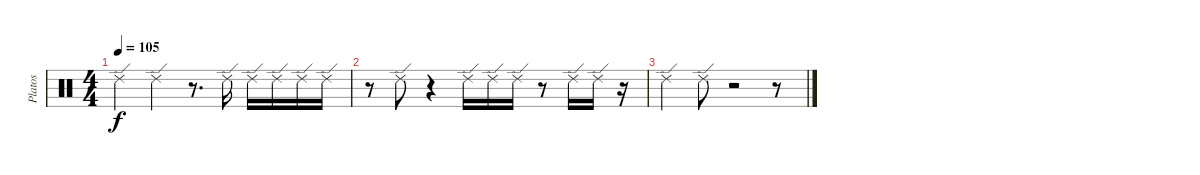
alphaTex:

\track ("Platos" "Platos") {instrument percussion}
\staff {score}
\articulation defaults
\ts (4 4)
\tempo 105
\clef neutral
\ks c "Ride (edge) 2".4{dy f} "Ride (edge) 2".4
r.8{d} "Ride (edge) 2".16 "Ride (edge) 2".16 "Ride (edge) 2".16 "Ride (edge) 2".16 "Ride (edge) 2".16 |
r.8 "Ride (edge) 2".8 r.4 "Ride (edge) 2".16 "Ride (edge) 2".16 "Ride (edge) 2".16 r.8 "Ride (edge) 2".16 "Ride (edge) 2".16 r.16 |
"Ride (edge) 2".4 "Ride (edge) 2".8 r.2 r.8
